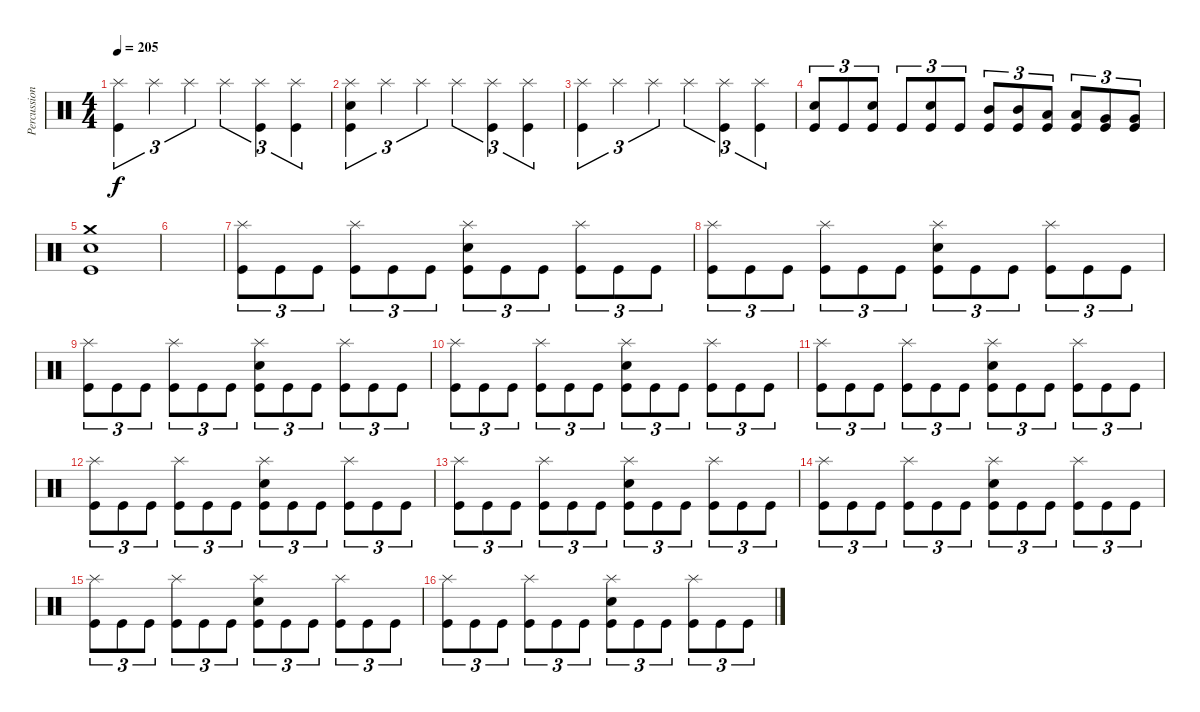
\track ("Percussion" "Percussion") {instrument percussion}
\staff {score}
\articulation defaults
\ts (4 4)
\tempo 205
\clef neutral
\ks c
("Splash (hit)" "Kick (hit)").4{tu (3 2) dy f} "Splash (hit)".4{tu (3 2)} "Splash (hit)".4{tu (3 2)} "Splash (hit)".4{tu (3 2)} ("Splash (hit)" "Kick (hit)").4{tu (3 2)} ("Splash (hit)" "Kick (hit)").4{tu (3 2)} |
("Splash (hit)" "Snare (hit) 2" "Kick (hit)").4{tu (3 2)} "Splash (hit)".4{tu (3 2)} "Splash (hit)".4{tu (3 2)} "Splash (hit)".4{tu (3 2)} ("Splash (hit)" "Kick (hit)").4{tu (3 2)} ("Splash (hit)" "Kick (hit)").4{tu (3 2)} |
("Splash (hit)" "Kick (hit)").4{tu (3 2)} "Splash (hit)".4{tu (3 2)} "Splash (hit)".4{tu (3 2)} "Splash (hit)".4{tu (3 2)} ("Splash (hit)" "Kick (hit)").4{tu (3 2)} ("Splash (hit)" "Kick (hit)").4{tu (3 2)} |
("Snare (hit) 2" "Kick (hit)").8{tu (3 2)} "Kick (hit)".8{tu (3 2)} ("Snare (hit) 2" "Kick (hit)").8{tu (3 2)} "Kick (hit)".8{tu (3 2)} ("Snare (hit) 2" "Kick (hit)").8{tu (3 2)} "Kick (hit)".8{tu (3 2)} ("Mid Tom (hit)" "Kick (hit)").8{tu (3 2)} ("Mid Tom (hit)" "Kick (hit)").8{tu (3 2)} ("Low Tom (hit)" "Kick (hit)").8{tu (3 2)} ("Low Tom (hit)" "Kick (hit)").8{tu (3 2)} ("Very Low Tom (hit)" "Kick (hit)").8{tu (3 2)} ("Very Low Tom (hit)" "Kick (hit)").8{tu (3 2)} |
("Crash medium (hit)" "Snare (hit) 2" "Kick (hit)").1 |
|
("Splash (hit)" "Kick (hit)").8{tu (3 2)} "Kick (hit)".8{tu (3 2)} "Kick (hit)".8{tu (3 2)} ("Splash (hit)" "Kick (hit)").8{tu (3 2)} "Kick (hit)".8{tu (3 2)} "Kick (hit)".8{tu (3 2)} ("Splash (hit)" "Snare (hit) 2" "Kick (hit)").8{tu (3 2)} "Kick (hit)".8{tu (3 2)} "Kick (hit)".8{tu (3 2)} ("Splash (hit)" "Kick (hit)").8{tu (3 2)} "Kick (hit)".8{tu (3 2)} "Kick (hit)".8{tu (3 2)} |
("Splash (hit)" "Kick (hit)").8{tu (3 2)} "Kick (hit)".8{tu (3 2)} "Kick (hit)".8{tu (3 2)} ("Splash (hit)" "Kick (hit)").8{tu (3 2)} "Kick (hit)".8{tu (3 2)} "Kick (hit)".8{tu (3 2)} ("Splash (hit)" "Snare (hit) 2" "Kick (hit)").8{tu (3 2)} "Kick (hit)".8{tu (3 2)} "Kick (hit)".8{tu (3 2)} ("Splash (hit)" "Kick (hit)").8{tu (3 2)} "Kick (hit)".8{tu (3 2)} "Kick (hit)".8{tu (3 2)} |
("Splash (hit)" "Kick (hit)").8{tu (3 2)} "Kick (hit)".8{tu (3 2)} "Kick (hit)".8{tu (3 2)} ("Splash (hit)" "Kick (hit)").8{tu (3 2)} "Kick (hit)".8{tu (3 2)} "Kick (hit)".8{tu (3 2)} ("Splash (hit)" "Snare (hit) 2" "Kick (hit)").8{tu (3 2)} "Kick (hit)".8{tu (3 2)} "Kick (hit)".8{tu (3 2)} ("Splash (hit)" "Kick (hit)").8{tu (3 2)} "Kick (hit)".8{tu (3 2)} "Kick (hit)".8{tu (3 2)} |
("Splash (hit)" "Kick (hit)").8{tu (3 2)} "Kick (hit)".8{tu (3 2)} "Kick (hit)".8{tu (3 2)} ("Splash (hit)" "Kick (hit)").8{tu (3 2)} "Kick (hit)".8{tu (3 2)} "Kick (hit)".8{tu (3 2)} ("Splash (hit)" "Snare (hit) 2" "Kick (hit)").8{tu (3 2)} "Kick (hit)".8{tu (3 2)} "Kick (hit)".8{tu (3 2)} ("Splash (hit)" "Kick (hit)").8{tu (3 2)} "Kick (hit)".8{tu (3 2)} "Kick (hit)".8{tu (3 2)} |
("Splash (hit)" "Kick (hit)").8{tu (3 2)} "Kick (hit)".8{tu (3 2)} "Kick (hit)".8{tu (3 2)} ("Splash (hit)" "Kick (hit)").8{tu (3 2)} "Kick (hit)".8{tu (3 2)} "Kick (hit)".8{tu (3 2)} ("Splash (hit)" "Snare (hit) 2" "Kick (hit)").8{tu (3 2)} "Kick (hit)".8{tu (3 2)} "Kick (hit)".8{tu (3 2)} ("Splash (hit)" "Kick (hit)").8{tu (3 2)} "Kick (hit)".8{tu (3 2)} "Kick (hit)".8{tu (3 2)} |
("Splash (hit)" "Kick (hit)").8{tu (3 2)} "Kick (hit)".8{tu (3 2)} "Kick (hit)".8{tu (3 2)} ("Splash (hit)" "Kick (hit)").8{tu (3 2)} "Kick (hit)".8{tu (3 2)} "Kick (hit)".8{tu (3 2)} ("Splash (hit)" "Snare (hit) 2" "Kick (hit)").8{tu (3 2)} "Kick (hit)".8{tu (3 2)} "Kick (hit)".8{tu (3 2)} ("Splash (hit)" "Kick (hit)").8{tu (3 2)} "Kick (hit)".8{tu (3 2)} "Kick (hit)".8{tu (3 2)} |
("Splash (hit)" "Kick (hit)").8{tu (3 2)} "Kick (hit)".8{tu (3 2)} "Kick (hit)".8{tu (3 2)} ("Splash (hit)" "Kick (hit)").8{tu (3 2)} "Kick (hit)".8{tu (3 2)} "Kick (hit)".8{tu (3 2)} ("Splash (hit)" "Snare (hit) 2" "Kick (hit)").8{tu (3 2)} "Kick (hit)".8{tu (3 2)} "Kick (hit)".8{tu (3 2)} ("Splash (hit)" "Kick (hit)").8{tu (3 2)} "Kick (hit)".8{tu (3 2)} "Kick (hit)".8{tu (3 2)} |
("Splash (hit)" "Kick (hit)").8{tu (3 2)} "Kick (hit)".8{tu (3 2)} "Kick (hit)".8{tu (3 2)} ("Splash (hit)" "Kick (hit)").8{tu (3 2)} "Kick (hit)".8{tu (3 2)} "Kick (hit)".8{tu (3 2)} ("Splash (hit)" "Snare (hit) 2" "Kick (hit)").8{tu (3 2)} "Kick (hit)".8{tu (3 2)} "Kick (hit)".8{tu (3 2)} ("Splash (hit)" "Kick (hit)").8{tu (3 2)} "Kick (hit)".8{tu (3 2)} "Kick (hit)".8{tu (3 2)} |
("Splash (hit)" "Kick (hit)").8{tu (3 2)} "Kick (hit)".8{tu (3 2)} "Kick (hit)".8{tu (3 2)} ("Splash (hit)" "Kick (hit)").8{tu (3 2)} "Kick (hit)".8{tu (3 2)} "Kick (hit)".8{tu (3 2)} ("Splash (hit)" "Snare (hit) 2" "Kick (hit)").8{tu (3 2)} "Kick (hit)".8{tu (3 2)} "Kick (hit)".8{tu (3 2)} ("Splash (hit)" "Kick (hit)").8{tu (3 2)} "Kick (hit)".8{tu (3 2)} "Kick (hit)".8{tu (3 2)} |
("Splash (hit)" "Kick (hit)").8{tu (3 2)} "Kick (hit)".8{tu (3 2)} "Kick (hit)".8{tu (3 2)} ("Splash (hit)" "Kick (hit)").8{tu (3 2)} "Kick (hit)".8{tu (3 2)} "Kick (hit)".8{tu (3 2)} ("Splash (hit)" "Snare (hit) 2" "Kick (hit)").8{tu (3 2)} "Kick (hit)".8{tu (3 2)} "Kick (hit)".8{tu (3 2)} ("Splash (hit)" "Kick (hit)").8{tu (3 2)} "Kick (hit)".8{tu (3 2)} "Kick (hit)".8{tu (3 2)}
